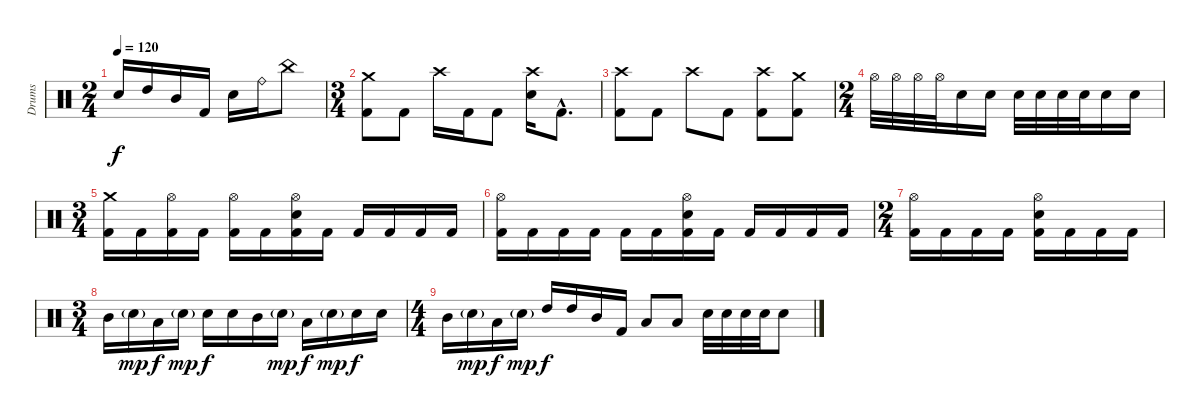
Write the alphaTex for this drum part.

\track ("Drums" "Drums") {instrument percussion}
\staff {score}
\articulation defaults
\ts (2 4)
\tempo 120
\clef neutral
\ks c "Electric Snare (hit)".16{dy f} "High Tom (hit)".16 "Mid Tom (hit)".16 "Kick (hit) 2".16 "Electric Snare (hit)".16 "Ride (bell)".16 "China (hit)".8
|
\ts (3 4)
("Crash medium (hit)" "Kick (hit) 2").8 "Kick (hit) 2".8 "Crash high (hit)".16 "Kick (hit) 2".16 "Kick (hit) 2".8 ("Crash high (hit)" "Electric Snare (hit)").16 "Kick (hit) 2"{hac}.8{d} |
("Crash high (hit)" "Kick (hit) 2").8 "Kick (hit) 2".8 "Crash high (hit)".8 "Kick (hit) 2".8 ("Kick (hit) 2" "Crash high (hit)").8 ("Kick (hit) 2" "Crash medium (hit)").8 |
\ts (2 4)
"Hi-Hat (open)".32 "Hi-Hat (open)".32 "Hi-Hat (open)".32 "Hi-Hat (open)".32 "Electric Snare (hit)".16 "Electric Snare (hit)".16 "Electric Snare (hit)".32 "Electric Snare (hit)".32 "Electric Snare (hit)".32 "Electric Snare (hit)".32 "Electric Snare (hit)".16 "Electric Snare (hit)".16 |
\ts (3 4)
("Kick (hit) 2" "Crash medium (hit)").16 "Kick (hit) 2".16 ("Kick (hit) 2" "Hi-Hat (open)").16 "Kick (hit) 2".16 ("Kick (hit) 2" "Hi-Hat (open)").16 "Kick (hit) 2".16 ("Kick (hit) 2" "Hi-Hat (open)" "Electric Snare (hit)").16 "Kick (hit) 2".16 "Kick (hit) 2".16 "Kick (hit) 2".16 "Kick (hit) 2".16 "Kick (hit) 2".16 |
("Kick (hit) 2" "Hi-Hat (open)").16 "Kick (hit) 2".16 "Kick (hit) 2".16 "Kick (hit) 2".16 "Kick (hit) 2".16 "Kick (hit) 2".16 ("Kick (hit) 2" "Hi-Hat (open)" "Electric Snare (hit)").16 "Kick (hit) 2".16 "Kick (hit) 2".16 "Kick (hit) 2".16 "Kick (hit) 2".16 "Kick (hit) 2".16 |
\ts (2 4)
("Kick (hit) 2" "Hi-Hat (open)").16 "Kick (hit) 2".16 "Kick (hit) 2".16 "Kick (hit) 2".16 ("Kick (hit) 2" "Hi-Hat (open)" "Electric Snare (hit)").16 "Kick (hit) 2".16 "Kick (hit) 2".16 "Kick (hit) 2".16 |
\ts (3 4)
"Mid Tom (hit)".16 "Electric Snare (hit)"{g}.16{dy mp} "Low Tom (hit)".16{dy f} "Electric Snare (hit)"{g}.16{dy mp} "Electric Snare (hit)".16{dy f} "Electric Snare (hit)".16 "Mid Tom (hit)".16 "Electric Snare (hit)"{g}.16{dy mp} "Low Tom (hit)".16{dy f} "Electric Snare (hit)"{g}.16{dy mp} "Electric Snare (hit)".16{dy f} "Electric Snare (hit)".16 |
\ts (4 4)
"Mid Tom (hit)".16 "Electric Snare (hit)"{g}.16{dy mp} "Low Tom (hit)".16{dy f} "Electric Snare (hit)"{g}.16{dy mp} "High Tom (hit)".16{dy f} "High Tom (hit)".16 "Mid Tom (hit)".16 "Kick (hit) 2".16 "Low Tom (hit)".8 "Low Tom (hit)".8 "Electric Snare (hit)".32 "Electric Snare (hit)".32 "Electric Snare (hit)".32 "Electric Snare (hit)".32 "Electric Snare (hit)".8
